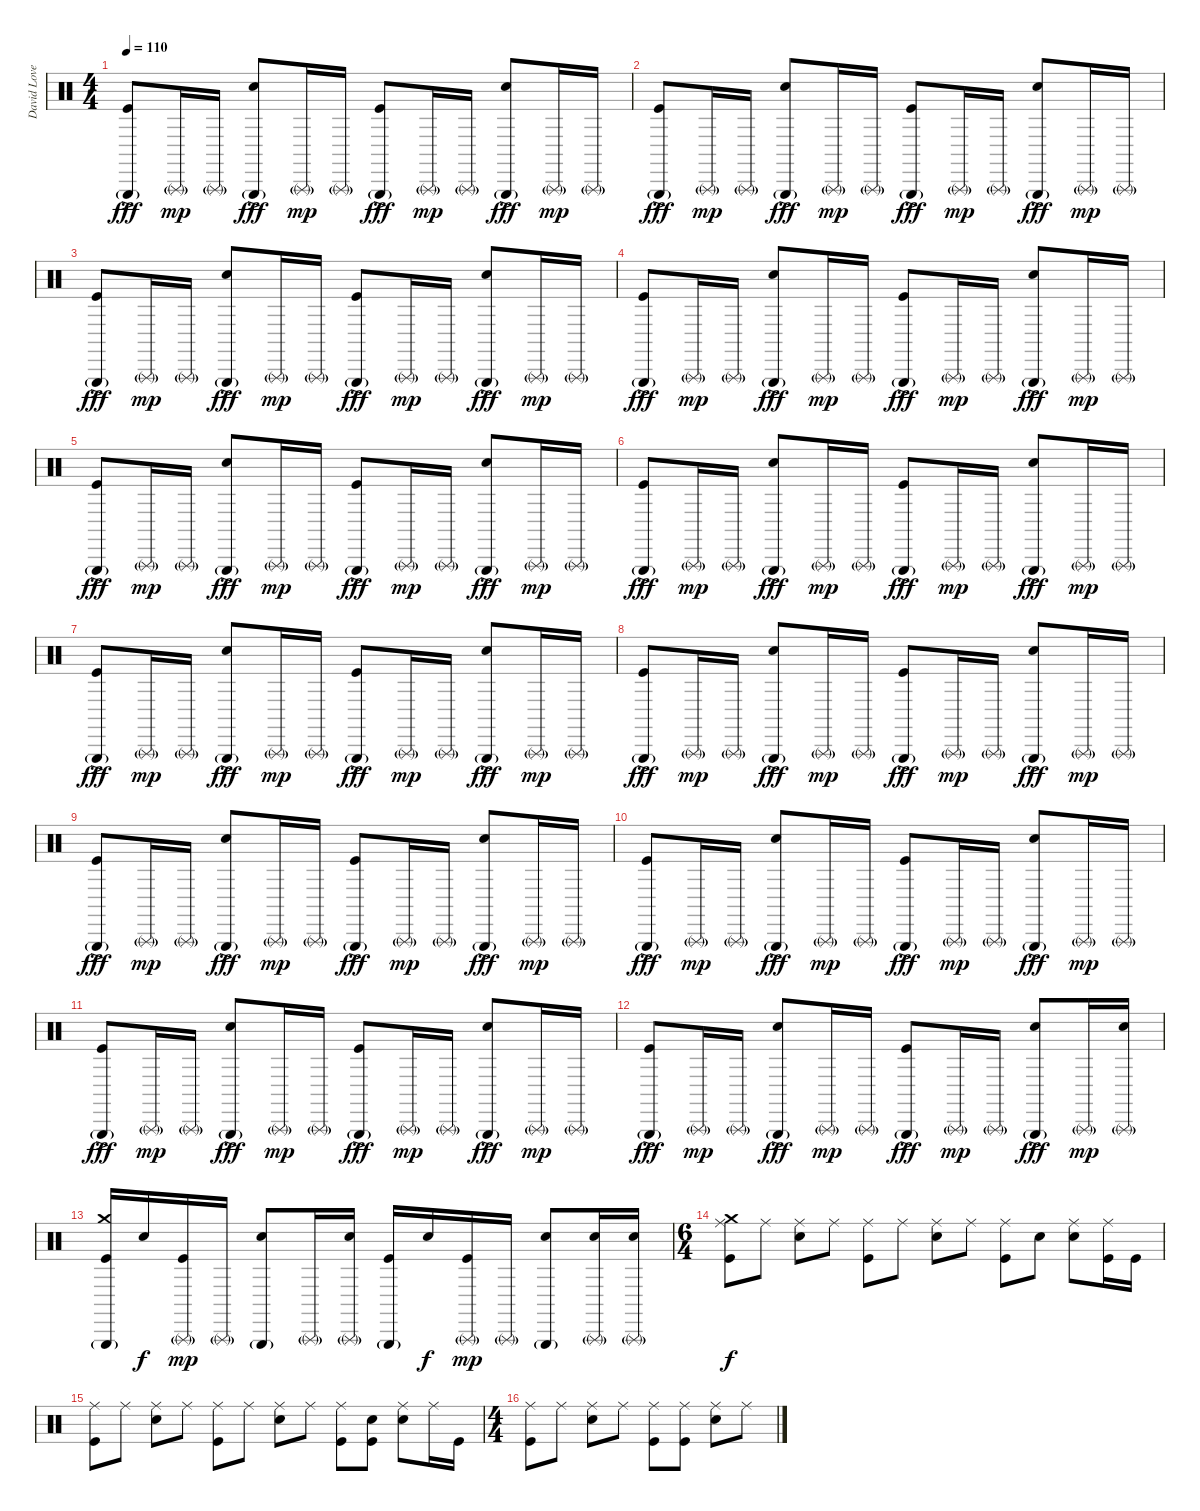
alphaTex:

\track ("David Lovering" "David Love") {instrument percussion}
\staff {score}
\articulation defaults
\ts (4 4)
\tempo 110
\clef neutral
\ks c
("Triangle (hit)"{g} "Kick (hit)"{ac}).8{dy fff} "Triangle (rnute)"{g}.16{dy mp} "Triangle (rnute)"{g}.16 ("Triangle (hit)"{g} "Snare (hit) 2"{ac}).8{dy fff} "Triangle (rnute)"{g}.16{dy mp} "Triangle (rnute)"{g}.16 ("Triangle (hit)"{g} "Kick (hit)"{ac}).8{dy fff} "Triangle (rnute)"{g}.16{dy mp} "Triangle (rnute)"{g}.16 ("Triangle (hit)"{g} "Snare (hit) 2"{ac}).8{dy fff} "Triangle (rnute)"{g}.16{dy mp} "Triangle (rnute)"{g}.16 |
("Triangle (hit)"{g} "Kick (hit)"{ac}).8{dy fff} "Triangle (rnute)"{g}.16{dy mp} "Triangle (rnute)"{g}.16 ("Triangle (hit)"{g} "Snare (hit) 2"{ac}).8{dy fff} "Triangle (rnute)"{g}.16{dy mp} "Triangle (rnute)"{g}.16 ("Triangle (hit)"{g} "Kick (hit)"{ac}).8{dy fff} "Triangle (rnute)"{g}.16{dy mp} "Triangle (rnute)"{g}.16 ("Triangle (hit)"{g} "Snare (hit) 2"{ac}).8{dy fff} "Triangle (rnute)"{g}.16{dy mp} "Triangle (rnute)"{g}.16 |
("Triangle (hit)"{g} "Kick (hit)"{ac}).8{dy fff} "Triangle (rnute)"{g}.16{dy mp} "Triangle (rnute)"{g}.16 ("Triangle (hit)"{g} "Snare (hit) 2"{ac}).8{dy fff} "Triangle (rnute)"{g}.16{dy mp} "Triangle (rnute)"{g}.16 ("Triangle (hit)"{g} "Kick (hit)"{ac}).8{dy fff} "Triangle (rnute)"{g}.16{dy mp} "Triangle (rnute)"{g}.16 ("Triangle (hit)"{g} "Snare (hit) 2"{ac}).8{dy fff} "Triangle (rnute)"{g}.16{dy mp} "Triangle (rnute)"{g}.16 |
("Triangle (hit)"{g} "Kick (hit)"{ac}).8{dy fff} "Triangle (rnute)"{g}.16{dy mp} "Triangle (rnute)"{g}.16 ("Triangle (hit)"{g} "Snare (hit) 2"{ac}).8{dy fff} "Triangle (rnute)"{g}.16{dy mp} "Triangle (rnute)"{g}.16 ("Triangle (hit)"{g} "Kick (hit)"{ac}).8{dy fff} "Triangle (rnute)"{g}.16{dy mp} "Triangle (rnute)"{g}.16 ("Triangle (hit)"{g} "Snare (hit) 2"{ac}).8{dy fff} "Triangle (rnute)"{g}.16{dy mp} "Triangle (rnute)"{g}.16 |
("Triangle (hit)"{g} "Kick (hit)"{ac}).8{dy fff} "Triangle (rnute)"{g}.16{dy mp} "Triangle (rnute)"{g}.16 ("Triangle (hit)"{g} "Snare (hit) 2"{ac}).8{dy fff} "Triangle (rnute)"{g}.16{dy mp} "Triangle (rnute)"{g}.16 ("Triangle (hit)"{g} "Kick (hit)"{ac}).8{dy fff} "Triangle (rnute)"{g}.16{dy mp} "Triangle (rnute)"{g}.16 ("Triangle (hit)"{g} "Snare (hit) 2"{ac}).8{dy fff} "Triangle (rnute)"{g}.16{dy mp} "Triangle (rnute)"{g}.16 |
("Triangle (hit)"{g} "Kick (hit)"{ac}).8{dy fff} "Triangle (rnute)"{g}.16{dy mp} "Triangle (rnute)"{g}.16 ("Triangle (hit)"{g} "Snare (hit) 2"{ac}).8{dy fff} "Triangle (rnute)"{g}.16{dy mp} "Triangle (rnute)"{g}.16 ("Triangle (hit)"{g} "Kick (hit)"{ac}).8{dy fff} "Triangle (rnute)"{g}.16{dy mp} "Triangle (rnute)"{g}.16 ("Triangle (hit)"{g} "Snare (hit) 2"{ac}).8{dy fff} "Triangle (rnute)"{g}.16{dy mp} "Triangle (rnute)"{g}.16 |
("Triangle (hit)"{g} "Kick (hit)"{ac}).8{dy fff} "Triangle (rnute)"{g}.16{dy mp} "Triangle (rnute)"{g}.16 ("Triangle (hit)"{g} "Snare (hit) 2"{ac}).8{dy fff} "Triangle (rnute)"{g}.16{dy mp} "Triangle (rnute)"{g}.16 ("Triangle (hit)"{g} "Kick (hit)"{ac}).8{dy fff} "Triangle (rnute)"{g}.16{dy mp} "Triangle (rnute)"{g}.16 ("Triangle (hit)"{g} "Snare (hit) 2"{ac}).8{dy fff} "Triangle (rnute)"{g}.16{dy mp} "Triangle (rnute)"{g}.16 |
("Triangle (hit)"{g} "Kick (hit)"{ac}).8{dy fff} "Triangle (rnute)"{g}.16{dy mp} "Triangle (rnute)"{g}.16 ("Triangle (hit)"{g} "Snare (hit) 2"{ac}).8{dy fff} "Triangle (rnute)"{g}.16{dy mp} "Triangle (rnute)"{g}.16 ("Triangle (hit)"{g} "Kick (hit)"{ac}).8{dy fff} "Triangle (rnute)"{g}.16{dy mp} "Triangle (rnute)"{g}.16 ("Triangle (hit)"{g} "Snare (hit) 2"{ac}).8{dy fff} "Triangle (rnute)"{g}.16{dy mp} "Triangle (rnute)"{g}.16 |
("Triangle (hit)"{g} "Kick (hit)"{ac}).8{dy fff} "Triangle (rnute)"{g}.16{dy mp} "Triangle (rnute)"{g}.16 ("Triangle (hit)"{g} "Snare (hit) 2"{ac}).8{dy fff} "Triangle (rnute)"{g}.16{dy mp} "Triangle (rnute)"{g}.16 ("Triangle (hit)"{g} "Kick (hit)"{ac}).8{dy fff} "Triangle (rnute)"{g}.16{dy mp} "Triangle (rnute)"{g}.16 ("Triangle (hit)"{g} "Snare (hit) 2"{ac}).8{dy fff} "Triangle (rnute)"{g}.16{dy mp} "Triangle (rnute)"{g}.16 |
("Triangle (hit)"{g} "Kick (hit)"{ac}).8{dy fff} "Triangle (rnute)"{g}.16{dy mp} "Triangle (rnute)"{g}.16 ("Triangle (hit)"{g} "Snare (hit) 2"{ac}).8{dy fff} "Triangle (rnute)"{g}.16{dy mp} "Triangle (rnute)"{g}.16 ("Triangle (hit)"{g} "Kick (hit)"{ac}).8{dy fff} "Triangle (rnute)"{g}.16{dy mp} "Triangle (rnute)"{g}.16 ("Triangle (hit)"{g} "Snare (hit) 2"{ac}).8{dy fff} "Triangle (rnute)"{g}.16{dy mp} "Triangle (rnute)"{g}.16 |
("Triangle (hit)"{g} "Kick (hit)"{ac}).8{dy fff} "Triangle (rnute)"{g}.16{dy mp} "Triangle (rnute)"{g}.16 ("Triangle (hit)"{g} "Snare (hit) 2"{ac}).8{dy fff} "Triangle (rnute)"{g}.16{dy mp} "Triangle (rnute)"{g}.16 ("Triangle (hit)"{g} "Kick (hit)"{ac}).8{dy fff} "Triangle (rnute)"{g}.16{dy mp} "Triangle (rnute)"{g}.16 ("Triangle (hit)"{g} "Snare (hit) 2"{ac}).8{dy fff} "Triangle (rnute)"{g}.16{dy mp} "Triangle (rnute)"{g}.16 |
("Triangle (hit)"{g} "Kick (hit)"{ac}).8{dy fff} "Triangle (rnute)"{g}.16{dy mp} "Triangle (rnute)"{g}.16 ("Triangle (hit)"{g} "Snare (hit) 2"{ac}).8{dy fff} "Triangle (rnute)"{g}.16{dy mp} "Triangle (rnute)"{g}.16 ("Triangle (hit)"{g} "Kick (hit)"{ac}).8{dy fff} "Triangle (rnute)"{g}.16{dy mp} "Triangle (rnute)"{g}.16 ("Triangle (hit)"{g} "Snare (hit) 2"{ac}).8{dy fff} "Triangle (rnute)"{g}.16{dy mp} ("Triangle (rnute)"{g} "Snare (hit) 2").16 |
("Triangle (hit)"{g} "Crash medium (hit)" "Kick (hit)").16 "Snare (hit) 2".16{dy f} ("Triangle (rnute)"{g} "Kick (hit)").16{dy mp} "Triangle (rnute)"{g}.16 ("Triangle (hit)"{g} "Snare (hit) 2").8 "Triangle (rnute)"{g}.16 ("Triangle (rnute)"{g} "Snare (hit) 2").16 ("Triangle (hit)"{g} "Kick (hit)").16 "Snare (hit) 2".16{dy f} ("Triangle (rnute)"{g} "Kick (hit)").16{dy mp} "Triangle (rnute)"{g}.16 ("Triangle (hit)"{g} "Snare (hit) 2").8 ("Triangle (rnute)"{g} "Snare (hit) 2").16 ("Triangle (rnute)"{g} "Snare (hit) 2").16 |
\ts (6 4)
\section ("" "")
("Ride (middle)" "Crash medium (hit)" "Kick (hit)").8{dy f} "Ride (middle)".8 ("Ride (middle)" "Snare (hit) 2").8 "Ride (middle)".8 ("Ride (middle)" "Kick (hit)").8 "Ride (middle)".8 ("Ride (middle)" "Snare (hit) 2").8 "Ride (middle)".8 ("Ride (middle)" "Kick (hit)").8 "Snare (hit)".8 ("Ride (middle)" "Snare (hit) 2").8 ("Ride (middle)" "Kick (hit)").16 "Kick (hit)".16 |
("Ride (middle)" "Kick (hit)").8 "Ride (middle)".8 ("Ride (middle)" "Snare (hit) 2").8 "Ride (middle)".8 ("Ride (middle)" "Kick (hit)").8 "Ride (middle)".8 ("Ride (middle)" "Snare (hit) 2").8 "Ride (middle)".8 ("Ride (middle)" "Kick (hit)").8 ("Snare (hit)" "Kick (hit)").8 ("Ride (middle)" "Snare (hit) 2").8 "Ride (middle)".16 "Kick (hit)".16 |
\ts (4 4)
("Ride (middle)" "Kick (hit)").8 "Ride (middle)".8 ("Ride (middle)" "Snare (hit) 2").8 "Ride (middle)".8 ("Ride (middle)" "Kick (hit)").8 ("Ride (middle)" "Kick (hit)").8 ("Ride (middle)" "Snare (hit) 2").8 "Ride (middle)".8
